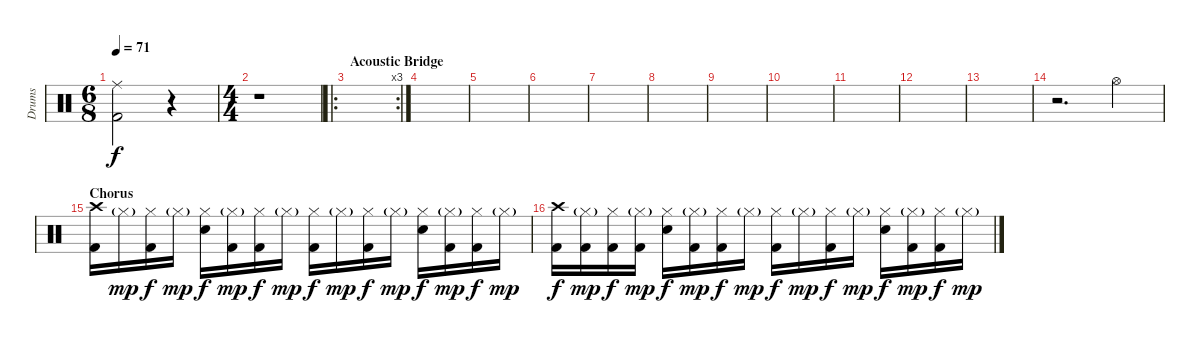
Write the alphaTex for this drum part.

\track ("Drums" "Drums") {instrument percussion}
\staff {score}
\articulation defaults
\ts (6 8)
\section ("" "")
\tempo 71
\clef neutral
\ks c
("Ride (middle)" "Kick (hit) 2").2{dy f} r.4 |
\ts (4 4)
r.1 |
\ro
\rc 3
\section ("" "Acoustic Bridge")
|
|
|
|
|
|
|
|
|
|
|
r.2{d} "Hi-Hat (open)".4 |
\section ("" "Chorus")
("Crash high (hit)" "Kick (hit) 2").16 "Hi-Hat (closed)"{g}.16{dy mp} ("Hi-Hat (closed)" "Kick (hit) 2").16{dy f} "Hi-Hat (closed)"{g}.16{dy mp} ("Hi-Hat (closed)" "Electric Snare (hit)").16{dy f} ("Hi-Hat (closed)"{g} "Kick (hit) 2").16{dy mp} ("Hi-Hat (closed)" "Kick (hit) 2").16{dy f} "Hi-Hat (closed)"{g}.16{dy mp} ("Hi-Hat (closed)" "Kick (hit) 2").16{dy f} "Hi-Hat (closed)"{g}.16{dy mp} ("Hi-Hat (closed)" "Kick (hit) 2").16{dy f} "Hi-Hat (closed)"{g}.16{dy mp} ("Hi-Hat (closed)" "Electric Snare (hit)").16{dy f} ("Hi-Hat (closed)"{g} "Kick (hit) 2").16{dy mp} ("Hi-Hat (closed)" "Kick (hit) 2").16{dy f} "Hi-Hat (closed)"{g}.16{dy mp} |
("Crash high (hit)" "Kick (hit) 2").16{dy f} ("Hi-Hat (closed)"{g} "Kick (hit) 2").16{dy mp} ("Hi-Hat (closed)" "Kick (hit) 2").16{dy f} ("Hi-Hat (closed)"{g} "Kick (hit) 2").16{dy mp} ("Hi-Hat (closed)" "Electric Snare (hit)").16{dy f} ("Hi-Hat (closed)"{g} "Kick (hit) 2").16{dy mp} ("Hi-Hat (closed)" "Kick (hit) 2").16{dy f} "Hi-Hat (closed)"{g}.16{dy mp} ("Hi-Hat (closed)" "Kick (hit) 2").16{dy f} "Hi-Hat (closed)"{g}.16{dy mp} ("Hi-Hat (closed)" "Kick (hit) 2").16{dy f} "Hi-Hat (closed)"{g}.16{dy mp} ("Hi-Hat (closed)" "Electric Snare (hit)").16{dy f} ("Hi-Hat (closed)"{g} "Kick (hit) 2").16{dy mp} ("Hi-Hat (closed)" "Kick (hit) 2").16{dy f} "Hi-Hat (closed)"{g}.16{dy mp}
